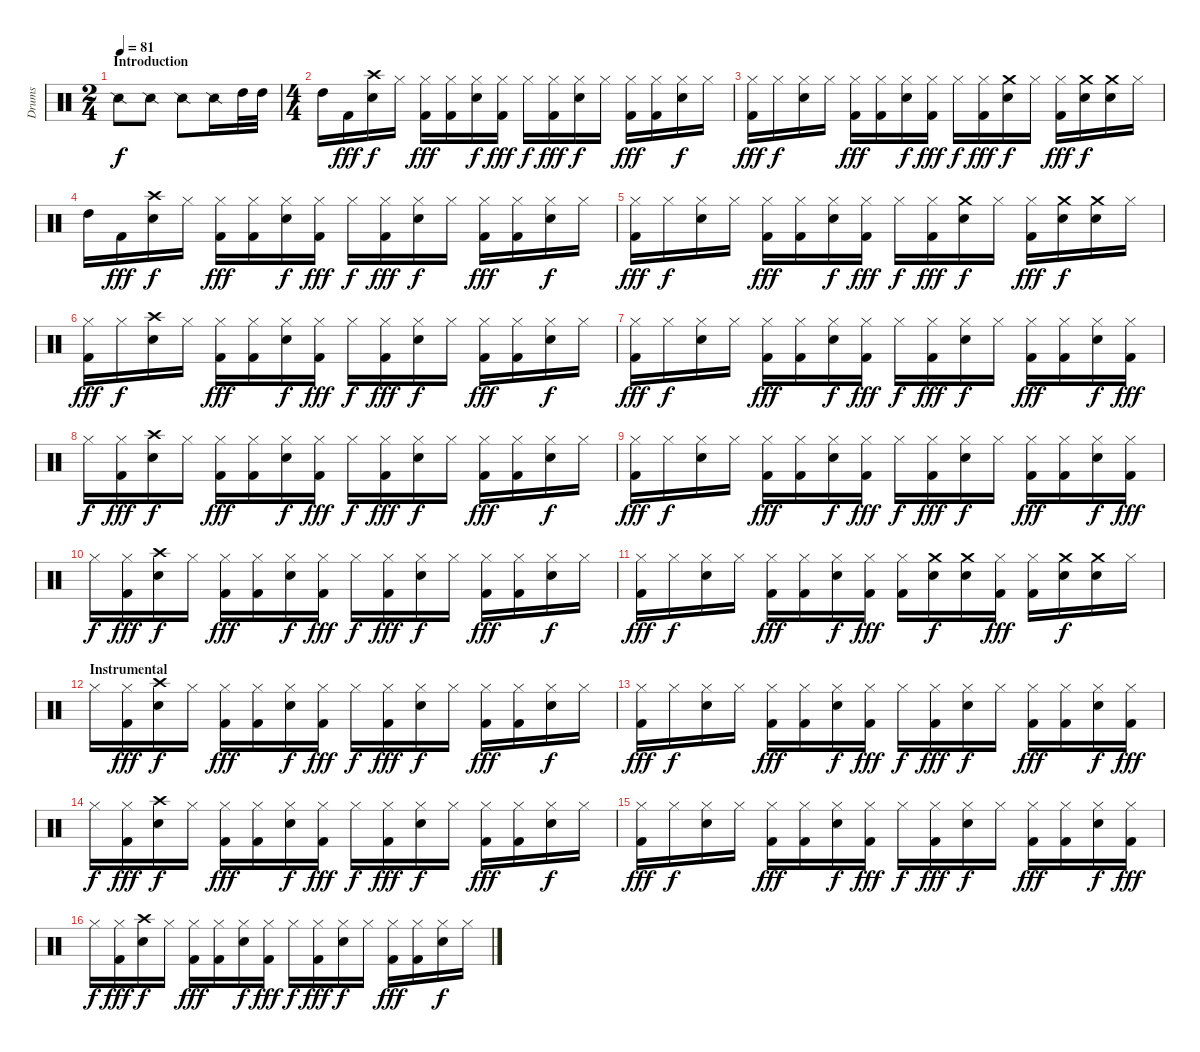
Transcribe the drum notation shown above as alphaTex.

\track ("Drums" "Drums") {instrument percussion}
\staff {score}
\articulation defaults
\ts (2 4)
\section ("" "Introduction")
\tempo 81
\clef neutral
\ks c "Snare (side stick) 2".8{dy f} "Snare (side stick) 2".8 "Snare (side stick) 2".8 "Snare (side stick) 2".16 "High Tom (hit)".32 "High Tom (hit)".32
|
\ts (4 4)
"High Tom (hit)".16 "Kick (hit) 2".16{dy fff} ("Crash high (hit)" "Snare (hit) 2").16{dy f} "Hi-Hat (closed)".16 ("Hi-Hat (closed)" "Kick (hit) 2").16{dy fff} ("Hi-Hat (closed)" "Kick (hit) 2").16 ("Hi-Hat (closed)" "Snare (hit) 2").16{dy f} ("Hi-Hat (closed)" "Kick (hit) 2").16{dy fff} "Hi-Hat (closed)".16{dy f} ("Hi-Hat (closed)" "Kick (hit) 2").16{dy fff} ("Hi-Hat (closed)" "Snare (hit) 2").16{dy f} "Hi-Hat (closed)".16 ("Hi-Hat (closed)" "Kick (hit) 2").16{dy fff} ("Hi-Hat (closed)" "Kick (hit) 2").16 ("Hi-Hat (closed)" "Snare (hit) 2").16{dy f} "Hi-Hat (closed)".16 |
("Hi-Hat (closed)" "Kick (hit) 2").16{dy fff} "Hi-Hat (closed)".16{dy f} ("Hi-Hat (closed)" "Snare (hit) 2").16 "Hi-Hat (closed)".16 ("Hi-Hat (closed)" "Kick (hit) 2").16{dy fff} ("Hi-Hat (closed)" "Kick (hit) 2").16 ("Hi-Hat (closed)" "Snare (hit) 2").16{dy f} ("Hi-Hat (closed)" "Kick (hit) 2").16{dy fff} "Hi-Hat (closed)".16{dy f} ("Hi-Hat (closed)" "Kick (hit) 2").16{dy fff} ("Crash medium (hit)" "Snare (hit) 2").16{dy f} "Hi-Hat (closed)".16 ("Hi-Hat (closed)" "Kick (hit) 2").16{dy fff} ("Crash medium (hit)" "Snare (hit) 2").16{dy f} ("Crash medium (hit)" "Snare (hit) 2").16 "Hi-Hat (closed)".16 |
"High Tom (hit)".16 "Kick (hit) 2".16{dy fff} ("Crash high (hit)" "Snare (hit) 2").16{dy f} "Hi-Hat (closed)".16 ("Hi-Hat (closed)" "Kick (hit) 2").16{dy fff} ("Hi-Hat (closed)" "Kick (hit) 2").16 ("Hi-Hat (closed)" "Snare (hit) 2").16{dy f} ("Hi-Hat (closed)" "Kick (hit) 2").16{dy fff} "Hi-Hat (closed)".16{dy f} ("Hi-Hat (closed)" "Kick (hit) 2").16{dy fff} ("Hi-Hat (closed)" "Snare (hit) 2").16{dy f} "Hi-Hat (closed)".16 ("Hi-Hat (closed)" "Kick (hit) 2").16{dy fff} ("Hi-Hat (closed)" "Kick (hit) 2").16 ("Hi-Hat (closed)" "Snare (hit) 2").16{dy f} "Hi-Hat (closed)".16 |
("Hi-Hat (closed)" "Kick (hit) 2").16{dy fff} "Hi-Hat (closed)".16{dy f} ("Hi-Hat (closed)" "Snare (hit) 2").16 "Hi-Hat (closed)".16 ("Hi-Hat (closed)" "Kick (hit) 2").16{dy fff} ("Hi-Hat (closed)" "Kick (hit) 2").16 ("Hi-Hat (closed)" "Snare (hit) 2").16{dy f} ("Hi-Hat (closed)" "Kick (hit) 2").16{dy fff} "Hi-Hat (closed)".16{dy f} ("Hi-Hat (closed)" "Kick (hit) 2").16{dy fff} ("Crash medium (hit)" "Snare (hit) 2").16{dy f} "Hi-Hat (closed)".16 ("Hi-Hat (closed)" "Kick (hit) 2").16{dy fff} ("Crash medium (hit)" "Snare (hit) 2").16{dy f} ("Crash medium (hit)" "Snare (hit) 2").16 "Hi-Hat (closed)".16 |
("Hi-Hat (closed)" "Kick (hit) 2").16{dy fff} "Hi-Hat (closed)".16{dy f} ("Crash high (hit)" "Snare (hit) 2").16 "Hi-Hat (closed)".16 ("Hi-Hat (closed)" "Kick (hit) 2").16{dy fff} ("Hi-Hat (closed)" "Kick (hit) 2").16 ("Hi-Hat (closed)" "Snare (hit) 2").16{dy f} ("Hi-Hat (closed)" "Kick (hit) 2").16{dy fff} "Hi-Hat (closed)".16{dy f} ("Hi-Hat (closed)" "Kick (hit) 2").16{dy fff} ("Hi-Hat (closed)" "Snare (hit) 2").16{dy f} "Hi-Hat (closed)".16 ("Hi-Hat (closed)" "Kick (hit) 2").16{dy fff} ("Hi-Hat (closed)" "Kick (hit) 2").16 ("Hi-Hat (closed)" "Snare (hit) 2").16{dy f} "Hi-Hat (closed)".16 |
("Hi-Hat (closed)" "Kick (hit) 2").16{dy fff} "Hi-Hat (closed)".16{dy f} ("Hi-Hat (closed)" "Snare (hit) 2").16 "Hi-Hat (closed)".16 ("Hi-Hat (closed)" "Kick (hit) 2").16{dy fff} ("Hi-Hat (closed)" "Kick (hit) 2").16 ("Hi-Hat (closed)" "Snare (hit) 2").16{dy f} ("Hi-Hat (closed)" "Kick (hit) 2").16{dy fff} "Hi-Hat (closed)".16{dy f} ("Hi-Hat (closed)" "Kick (hit) 2").16{dy fff} ("Hi-Hat (closed)" "Snare (hit) 2").16{dy f} "Hi-Hat (closed)".16 ("Hi-Hat (closed)" "Kick (hit) 2").16{dy fff} ("Hi-Hat (closed)" "Kick (hit) 2").16 ("Hi-Hat (closed)" "Snare (hit) 2").16{dy f} ("Hi-Hat (closed)" "Kick (hit) 2").16{dy fff} |
"Hi-Hat (closed)".16{dy f} ("Hi-Hat (closed)" "Kick (hit) 2").16{dy fff} ("Crash high (hit)" "Snare (hit) 2").16{dy f} "Hi-Hat (closed)".16 ("Hi-Hat (closed)" "Kick (hit) 2").16{dy fff} ("Hi-Hat (closed)" "Kick (hit) 2").16 ("Hi-Hat (closed)" "Snare (hit) 2").16{dy f} ("Hi-Hat (closed)" "Kick (hit) 2").16{dy fff} "Hi-Hat (closed)".16{dy f} ("Hi-Hat (closed)" "Kick (hit) 2").16{dy fff} ("Hi-Hat (closed)" "Snare (hit) 2").16{dy f} "Hi-Hat (closed)".16 ("Hi-Hat (closed)" "Kick (hit) 2").16{dy fff} ("Hi-Hat (closed)" "Kick (hit) 2").16 ("Hi-Hat (closed)" "Snare (hit) 2").16{dy f} "Hi-Hat (closed)".16 |
("Hi-Hat (closed)" "Kick (hit) 2").16{dy fff} "Hi-Hat (closed)".16{dy f} ("Hi-Hat (closed)" "Snare (hit) 2").16 "Hi-Hat (closed)".16 ("Hi-Hat (closed)" "Kick (hit) 2").16{dy fff} ("Hi-Hat (closed)" "Kick (hit) 2").16 ("Hi-Hat (closed)" "Snare (hit) 2").16{dy f} ("Hi-Hat (closed)" "Kick (hit) 2").16{dy fff} "Hi-Hat (closed)".16{dy f} ("Hi-Hat (closed)" "Kick (hit) 2").16{dy fff} ("Hi-Hat (closed)" "Snare (hit) 2").16{dy f} "Hi-Hat (closed)".16 ("Hi-Hat (closed)" "Kick (hit) 2").16{dy fff} ("Hi-Hat (closed)" "Kick (hit) 2").16 ("Hi-Hat (closed)" "Snare (hit) 2").16{dy f} ("Hi-Hat (closed)" "Kick (hit) 2").16{dy fff} |
"Hi-Hat (closed)".16{dy f} ("Hi-Hat (closed)" "Kick (hit) 2").16{dy fff} ("Crash high (hit)" "Snare (hit) 2").16{dy f} "Hi-Hat (closed)".16 ("Hi-Hat (closed)" "Kick (hit) 2").16{dy fff} ("Hi-Hat (closed)" "Kick (hit) 2").16 ("Hi-Hat (closed)" "Snare (hit) 2").16{dy f} ("Hi-Hat (closed)" "Kick (hit) 2").16{dy fff} "Hi-Hat (closed)".16{dy f} ("Hi-Hat (closed)" "Kick (hit) 2").16{dy fff} ("Hi-Hat (closed)" "Snare (hit) 2").16{dy f} "Hi-Hat (closed)".16 ("Hi-Hat (closed)" "Kick (hit) 2").16{dy fff} ("Hi-Hat (closed)" "Kick (hit) 2").16 ("Hi-Hat (closed)" "Snare (hit) 2").16{dy f} "Hi-Hat (closed)".16 |
("Hi-Hat (closed)" "Kick (hit) 2").16{dy fff} "Hi-Hat (closed)".16{dy f} ("Hi-Hat (closed)" "Snare (hit) 2").16 "Hi-Hat (closed)".16 ("Hi-Hat (closed)" "Kick (hit) 2").16{dy fff} ("Hi-Hat (closed)" "Kick (hit) 2").16 ("Hi-Hat (closed)" "Snare (hit) 2").16{dy f} ("Hi-Hat (closed)" "Kick (hit) 2").16{dy fff} ("Hi-Hat (closed)" "Kick (hit) 2").16 ("Crash medium (hit)" "Snare (hit) 2").16{dy f} ("Crash medium (hit)" "Snare (hit) 2").16 ("Hi-Hat (closed)" "Kick (hit) 2").16{dy fff} ("Hi-Hat (closed)" "Kick (hit) 2").16 ("Crash medium (hit)" "Snare (hit) 2").16{dy f} ("Crash medium (hit)" "Snare (hit) 2").16 "Hi-Hat (closed)".16 |
\section ("" "Instrumental")
"Hi-Hat (closed)".16 ("Hi-Hat (closed)" "Kick (hit) 2").16{dy fff} ("Crash high (hit)" "Snare (hit) 2").16{dy f} "Hi-Hat (closed)".16 ("Hi-Hat (closed)" "Kick (hit) 2").16{dy fff} ("Hi-Hat (closed)" "Kick (hit) 2").16 ("Hi-Hat (closed)" "Snare (hit) 2").16{dy f} ("Hi-Hat (closed)" "Kick (hit) 2").16{dy fff} "Hi-Hat (closed)".16{dy f} ("Hi-Hat (closed)" "Kick (hit) 2").16{dy fff} ("Hi-Hat (closed)" "Snare (hit) 2").16{dy f} "Hi-Hat (closed)".16 ("Hi-Hat (closed)" "Kick (hit) 2").16{dy fff} ("Hi-Hat (closed)" "Kick (hit) 2").16 ("Hi-Hat (closed)" "Snare (hit) 2").16{dy f} "Hi-Hat (closed)".16 |
("Hi-Hat (closed)" "Kick (hit) 2").16{dy fff} "Hi-Hat (closed)".16{dy f} ("Hi-Hat (closed)" "Snare (hit) 2").16 "Hi-Hat (closed)".16 ("Hi-Hat (closed)" "Kick (hit) 2").16{dy fff} ("Hi-Hat (closed)" "Kick (hit) 2").16 ("Hi-Hat (closed)" "Snare (hit) 2").16{dy f} ("Hi-Hat (closed)" "Kick (hit) 2").16{dy fff} "Hi-Hat (closed)".16{dy f} ("Hi-Hat (closed)" "Kick (hit) 2").16{dy fff} ("Hi-Hat (closed)" "Snare (hit) 2").16{dy f} "Hi-Hat (closed)".16 ("Hi-Hat (closed)" "Kick (hit) 2").16{dy fff} ("Hi-Hat (closed)" "Kick (hit) 2").16 ("Hi-Hat (closed)" "Snare (hit) 2").16{dy f} ("Hi-Hat (closed)" "Kick (hit) 2").16{dy fff} |
"Hi-Hat (closed)".16{dy f} ("Hi-Hat (closed)" "Kick (hit) 2").16{dy fff} ("Crash high (hit)" "Snare (hit) 2").16{dy f} "Hi-Hat (closed)".16 ("Hi-Hat (closed)" "Kick (hit) 2").16{dy fff} ("Hi-Hat (closed)" "Kick (hit) 2").16 ("Hi-Hat (closed)" "Snare (hit) 2").16{dy f} ("Hi-Hat (closed)" "Kick (hit) 2").16{dy fff} "Hi-Hat (closed)".16{dy f} ("Hi-Hat (closed)" "Kick (hit) 2").16{dy fff} ("Hi-Hat (closed)" "Snare (hit) 2").16{dy f} "Hi-Hat (closed)".16 ("Hi-Hat (closed)" "Kick (hit) 2").16{dy fff} ("Hi-Hat (closed)" "Kick (hit) 2").16 ("Hi-Hat (closed)" "Snare (hit) 2").16{dy f} "Hi-Hat (closed)".16 |
("Hi-Hat (closed)" "Kick (hit) 2").16{dy fff} "Hi-Hat (closed)".16{dy f} ("Hi-Hat (closed)" "Snare (hit) 2").16 "Hi-Hat (closed)".16 ("Hi-Hat (closed)" "Kick (hit) 2").16{dy fff} ("Hi-Hat (closed)" "Kick (hit) 2").16 ("Hi-Hat (closed)" "Snare (hit) 2").16{dy f} ("Hi-Hat (closed)" "Kick (hit) 2").16{dy fff} "Hi-Hat (closed)".16{dy f} ("Hi-Hat (closed)" "Kick (hit) 2").16{dy fff} ("Hi-Hat (closed)" "Snare (hit) 2").16{dy f} "Hi-Hat (closed)".16 ("Hi-Hat (closed)" "Kick (hit) 2").16{dy fff} ("Hi-Hat (closed)" "Kick (hit) 2").16 ("Hi-Hat (closed)" "Snare (hit) 2").16{dy f} ("Hi-Hat (closed)" "Kick (hit) 2").16{dy fff} |
"Hi-Hat (closed)".16{dy f} ("Hi-Hat (closed)" "Kick (hit) 2").16{dy fff} ("Crash high (hit)" "Snare (hit) 2").16{dy f} "Hi-Hat (closed)".16 ("Hi-Hat (closed)" "Kick (hit) 2").16{dy fff} ("Hi-Hat (closed)" "Kick (hit) 2").16 ("Hi-Hat (closed)" "Snare (hit) 2").16{dy f} ("Hi-Hat (closed)" "Kick (hit) 2").16{dy fff} "Hi-Hat (closed)".16{dy f} ("Hi-Hat (closed)" "Kick (hit) 2").16{dy fff} ("Hi-Hat (closed)" "Snare (hit) 2").16{dy f} "Hi-Hat (closed)".16 ("Hi-Hat (closed)" "Kick (hit) 2").16{dy fff} ("Hi-Hat (closed)" "Kick (hit) 2").16 ("Hi-Hat (closed)" "Snare (hit) 2").16{dy f} "Hi-Hat (closed)".16
